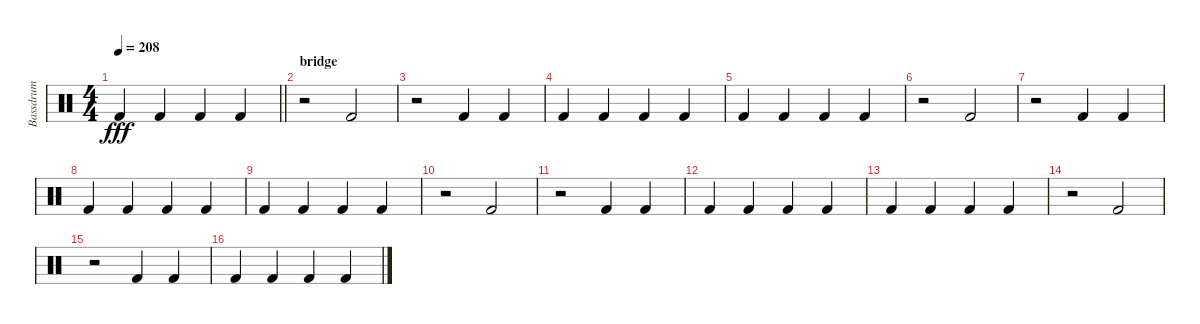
\track ("Bassdrum" "Bassdrum") {instrument percussion}
\staff {score}
\articulation defaults
\ts (4 4)
\tempo 208
\clef neutral
\barLineRight lightlight
\ks c "Kick (hit) 2".4{dy fff} "Kick (hit) 2".4 "Kick (hit) 2".4 "Kick (hit) 2".4
|
\section ("" "bridge")
r.2 "Kick (hit) 2".2 |
r.2 "Kick (hit) 2".4 "Kick (hit) 2".4 |
"Kick (hit) 2".4 "Kick (hit) 2".4 "Kick (hit) 2".4 "Kick (hit) 2".4 |
"Kick (hit) 2".4 "Kick (hit) 2".4 "Kick (hit) 2".4 "Kick (hit) 2".4 |
r.2 "Kick (hit) 2".2 |
r.2 "Kick (hit) 2".4 "Kick (hit) 2".4 |
"Kick (hit) 2".4 "Kick (hit) 2".4 "Kick (hit) 2".4 "Kick (hit) 2".4 |
"Kick (hit) 2".4 "Kick (hit) 2".4 "Kick (hit) 2".4 "Kick (hit) 2".4 |
r.2 "Kick (hit) 2".2 |
r.2 "Kick (hit) 2".4 "Kick (hit) 2".4 |
"Kick (hit) 2".4 "Kick (hit) 2".4 "Kick (hit) 2".4 "Kick (hit) 2".4 |
"Kick (hit) 2".4 "Kick (hit) 2".4 "Kick (hit) 2".4 "Kick (hit) 2".4 |
r.2 "Kick (hit) 2".2 |
r.2 "Kick (hit) 2".4 "Kick (hit) 2".4 |
"Kick (hit) 2".4 "Kick (hit) 2".4 "Kick (hit) 2".4 "Kick (hit) 2".4
